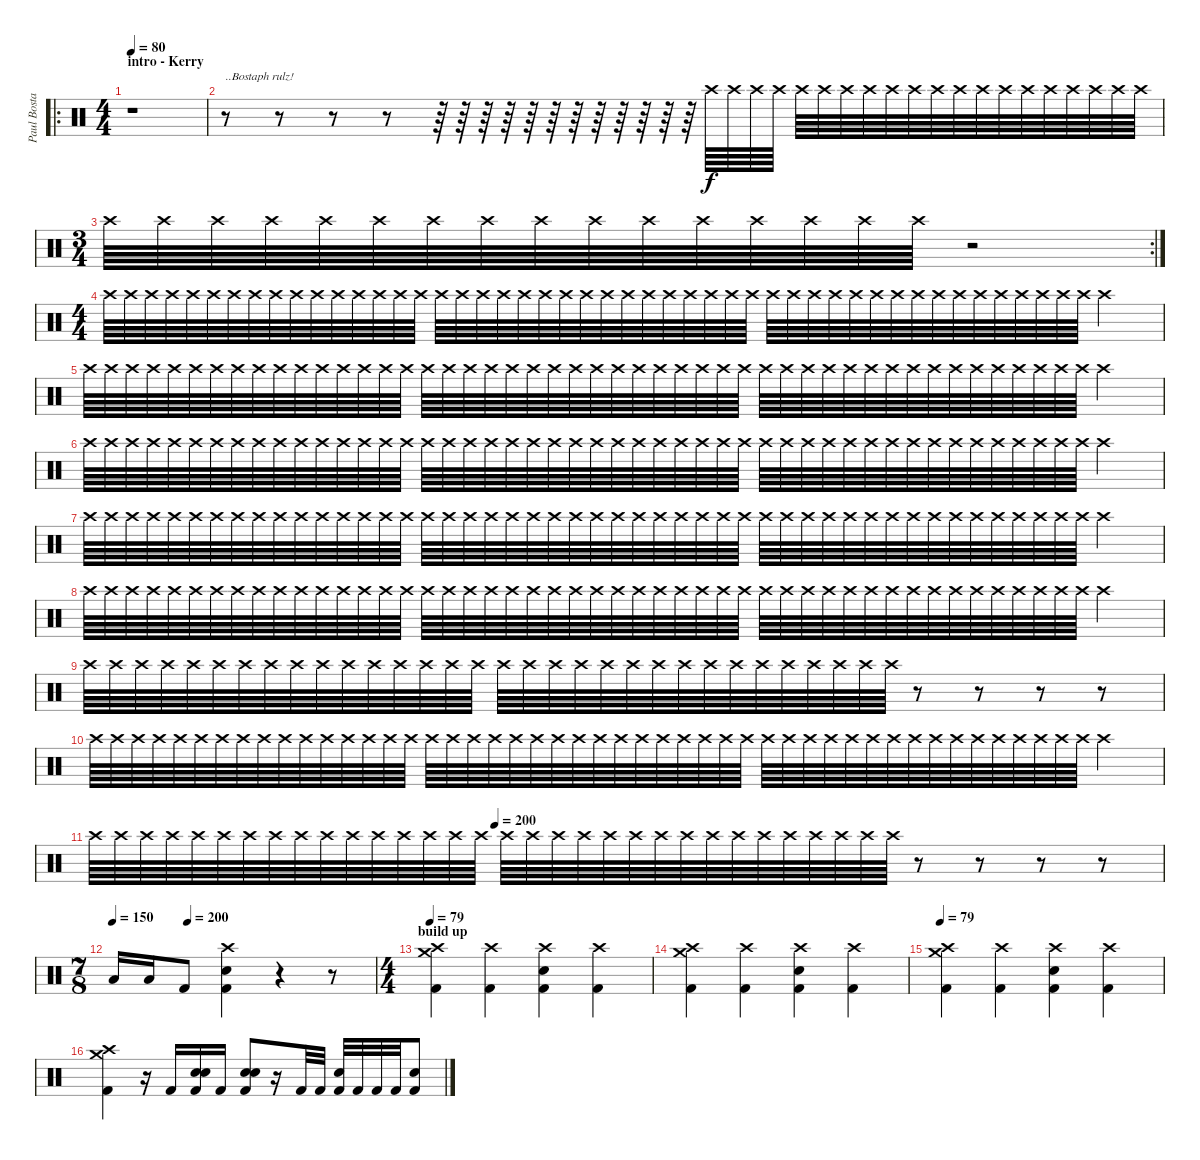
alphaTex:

\track ("Paul Bostaph" "Paul Bosta") {instrument percussion}
\staff {score}
\articulation defaults
\ro
\ts (4 4)
\section ("" "intro - Kerry")
\tempo 80
\clef neutral
\ks c
r.1{dy f} |
r.8{txt "..Bostaph rulz!"} r.8 r.8 r.8 r.64 r.64 r.64 r.64 r.64 r.64 r.64 r.64{volume 5} r.64 r.64 r.64 r.64 "Crash high (hit)".64 "Crash high (hit)".64 "Crash high (hit)".64 "Crash high (hit)".64 "Crash high (hit)".64{volume 6} "Crash high (hit)".64 "Crash high (hit)".64 "Crash high (hit)".64 "Crash high (hit)".64 "Crash high (hit)".64 "Crash high (hit)".64 "Crash high (hit)".64 "Crash high (hit)".64{volume 8} "Crash high (hit)".64 "Crash high (hit)".64 "Crash high (hit)".64 "Crash high (hit)".64 "Crash high (hit)".64 "Crash high (hit)".64 "Crash high (hit)".64 |
\rc 2
\ts (3 4)
"Crash high (hit)".64{volume 8} "Crash high (hit)".64 "Crash high (hit)".64 "Crash high (hit)".64 "Crash high (hit)".64 "Crash high (hit)".64 "Crash high (hit)".64{volume 9} "Crash high (hit)".64 "Crash high (hit)".64 "Crash high (hit)".64 "Crash high (hit)".64 "Crash high (hit)".64 "Crash high (hit)".64{volume 10} "Crash high (hit)".64 "Crash high (hit)".64 "Crash high (hit)".64 r.2 |
\ts (4 4)
"Crash high (hit)".64{volume 5} "Crash high (hit)".64 "Crash high (hit)".64 "Crash high (hit)".64 "Crash high (hit)".64 "Crash high (hit)".64 "Crash high (hit)".64 "Crash high (hit)".64 "Crash high (hit)".64 "Crash high (hit)".64 "Crash high (hit)".64 "Crash high (hit)".64 "Crash high (hit)".64 "Crash high (hit)".64 "Crash high (hit)".64 "Crash high (hit)".64 "Crash high (hit)".64{volume 6} "Crash high (hit)".64 "Crash high (hit)".64 "Crash high (hit)".64 "Crash high (hit)".64 "Crash high (hit)".64 "Crash high (hit)".64 "Crash high (hit)".64 "Crash high (hit)".64 "Crash high (hit)".64 "Crash high (hit)".64 "Crash high (hit)".64 "Crash high (hit)".64 "Crash high (hit)".64 "Crash high (hit)".64 "Crash high (hit)".64 "Crash high (hit)".64{volume 8} "Crash high (hit)".64 "Crash high (hit)".64 "Crash high (hit)".64 "Crash high (hit)".64 "Crash high (hit)".64 "Crash high (hit)".64 "Crash high (hit)".64 "Crash high (hit)".64 "Crash high (hit)".64 "Crash high (hit)".64 "Crash high (hit)".64 "Crash high (hit)".64 "Crash high (hit)".64 "Crash high (hit)".64 "Crash high (hit)".64 "Crash high (hit)".4 |
"Crash high (hit)".64{volume 5} "Crash high (hit)".64 "Crash high (hit)".64 "Crash high (hit)".64 "Crash high (hit)".64 "Crash high (hit)".64 "Crash high (hit)".64 "Crash high (hit)".64 "Crash high (hit)".64 "Crash high (hit)".64 "Crash high (hit)".64 "Crash high (hit)".64 "Crash high (hit)".64 "Crash high (hit)".64 "Crash high (hit)".64 "Crash high (hit)".64 "Crash high (hit)".64{volume 6} "Crash high (hit)".64 "Crash high (hit)".64 "Crash high (hit)".64 "Crash high (hit)".64 "Crash high (hit)".64 "Crash high (hit)".64 "Crash high (hit)".64 "Crash high (hit)".64 "Crash high (hit)".64 "Crash high (hit)".64 "Crash high (hit)".64 "Crash high (hit)".64 "Crash high (hit)".64 "Crash high (hit)".64 "Crash high (hit)".64 "Crash high (hit)".64{volume 8} "Crash high (hit)".64 "Crash high (hit)".64 "Crash high (hit)".64 "Crash high (hit)".64 "Crash high (hit)".64 "Crash high (hit)".64 "Crash high (hit)".64 "Crash high (hit)".64 "Crash high (hit)".64 "Crash high (hit)".64 "Crash high (hit)".64 "Crash high (hit)".64 "Crash high (hit)".64 "Crash high (hit)".64 "Crash high (hit)".64 "Crash high (hit)".4 |
"Crash high (hit)".64{volume 5} "Crash high (hit)".64 "Crash high (hit)".64 "Crash high (hit)".64 "Crash high (hit)".64 "Crash high (hit)".64 "Crash high (hit)".64 "Crash high (hit)".64 "Crash high (hit)".64 "Crash high (hit)".64 "Crash high (hit)".64 "Crash high (hit)".64 "Crash high (hit)".64 "Crash high (hit)".64 "Crash high (hit)".64 "Crash high (hit)".64 "Crash high (hit)".64{volume 6} "Crash high (hit)".64 "Crash high (hit)".64 "Crash high (hit)".64 "Crash high (hit)".64 "Crash high (hit)".64 "Crash high (hit)".64 "Crash high (hit)".64 "Crash high (hit)".64 "Crash high (hit)".64 "Crash high (hit)".64 "Crash high (hit)".64 "Crash high (hit)".64 "Crash high (hit)".64 "Crash high (hit)".64 "Crash high (hit)".64 "Crash high (hit)".64{volume 8} "Crash high (hit)".64 "Crash high (hit)".64 "Crash high (hit)".64 "Crash high (hit)".64 "Crash high (hit)".64 "Crash high (hit)".64 "Crash high (hit)".64 "Crash high (hit)".64 "Crash high (hit)".64 "Crash high (hit)".64 "Crash high (hit)".64 "Crash high (hit)".64 "Crash high (hit)".64 "Crash high (hit)".64 "Crash high (hit)".64 "Crash high (hit)".4 |
"Crash high (hit)".64{volume 5} "Crash high (hit)".64 "Crash high (hit)".64 "Crash high (hit)".64 "Crash high (hit)".64 "Crash high (hit)".64 "Crash high (hit)".64 "Crash high (hit)".64 "Crash high (hit)".64 "Crash high (hit)".64 "Crash high (hit)".64 "Crash high (hit)".64 "Crash high (hit)".64 "Crash high (hit)".64 "Crash high (hit)".64 "Crash high (hit)".64 "Crash high (hit)".64{volume 6} "Crash high (hit)".64 "Crash high (hit)".64 "Crash high (hit)".64 "Crash high (hit)".64 "Crash high (hit)".64 "Crash high (hit)".64 "Crash high (hit)".64 "Crash high (hit)".64 "Crash high (hit)".64 "Crash high (hit)".64 "Crash high (hit)".64 "Crash high (hit)".64 "Crash high (hit)".64 "Crash high (hit)".64 "Crash high (hit)".64 "Crash high (hit)".64{volume 8} "Crash high (hit)".64 "Crash high (hit)".64 "Crash high (hit)".64 "Crash high (hit)".64 "Crash high (hit)".64 "Crash high (hit)".64 "Crash high (hit)".64 "Crash high (hit)".64 "Crash high (hit)".64 "Crash high (hit)".64 "Crash high (hit)".64 "Crash high (hit)".64 "Crash high (hit)".64 "Crash high (hit)".64 "Crash high (hit)".64 "Crash high (hit)".4 |
"Crash high (hit)".64{volume 5} "Crash high (hit)".64 "Crash high (hit)".64 "Crash high (hit)".64 "Crash high (hit)".64 "Crash high (hit)".64 "Crash high (hit)".64 "Crash high (hit)".64 "Crash high (hit)".64 "Crash high (hit)".64 "Crash high (hit)".64 "Crash high (hit)".64 "Crash high (hit)".64 "Crash high (hit)".64 "Crash high (hit)".64 "Crash high (hit)".64 "Crash high (hit)".64{volume 6} "Crash high (hit)".64 "Crash high (hit)".64 "Crash high (hit)".64 "Crash high (hit)".64 "Crash high (hit)".64 "Crash high (hit)".64 "Crash high (hit)".64 "Crash high (hit)".64 "Crash high (hit)".64 "Crash high (hit)".64 "Crash high (hit)".64 "Crash high (hit)".64 "Crash high (hit)".64 "Crash high (hit)".64 "Crash high (hit)".64 "Crash high (hit)".64{volume 8} "Crash high (hit)".64 "Crash high (hit)".64 "Crash high (hit)".64 "Crash high (hit)".64 "Crash high (hit)".64 "Crash high (hit)".64 "Crash high (hit)".64 "Crash high (hit)".64 "Crash high (hit)".64 "Crash high (hit)".64 "Crash high (hit)".64 "Crash high (hit)".64 "Crash high (hit)".64 "Crash high (hit)".64 "Crash high (hit)".64 "Crash high (hit)".4 |
"Crash high (hit)".64{volume 7} "Crash high (hit)".64 "Crash high (hit)".64 "Crash high (hit)".64 "Crash high (hit)".64 "Crash high (hit)".64 "Crash high (hit)".64 "Crash high (hit)".64 "Crash high (hit)".64 "Crash high (hit)".64 "Crash high (hit)".64 "Crash high (hit)".64 "Crash high (hit)".64 "Crash high (hit)".64 "Crash high (hit)".64 "Crash high (hit)".64 "Crash high (hit)".64{volume 9} "Crash high (hit)".64 "Crash high (hit)".64 "Crash high (hit)".64 "Crash high (hit)".64 "Crash high (hit)".64 "Crash high (hit)".64 "Crash high (hit)".64 "Crash high (hit)".64 "Crash high (hit)".64 "Crash high (hit)".64 "Crash high (hit)".64 "Crash high (hit)".64 "Crash high (hit)".64 "Crash high (hit)".64 "Crash high (hit)".64 r.8 r.8 r.8 r.8 |
"Crash high (hit)".64{volume 7} "Crash high (hit)".64 "Crash high (hit)".64 "Crash high (hit)".64 "Crash high (hit)".64 "Crash high (hit)".64 "Crash high (hit)".64 "Crash high (hit)".64 "Crash high (hit)".64 "Crash high (hit)".64 "Crash high (hit)".64 "Crash high (hit)".64 "Crash high (hit)".64 "Crash high (hit)".64 "Crash high (hit)".64 "Crash high (hit)".64 "Crash high (hit)".64{volume 9} "Crash high (hit)".64 "Crash high (hit)".64 "Crash high (hit)".64 "Crash high (hit)".64 "Crash high (hit)".64 "Crash high (hit)".64 "Crash high (hit)".64 "Crash high (hit)".64 "Crash high (hit)".64 "Crash high (hit)".64 "Crash high (hit)".64 "Crash high (hit)".64 "Crash high (hit)".64 "Crash high (hit)".64 "Crash high (hit)".64 "Crash high (hit)".64{volume 11} "Crash high (hit)".64 "Crash high (hit)".64 "Crash high (hit)".64 "Crash high (hit)".64 "Crash high (hit)".64 "Crash high (hit)".64 "Crash high (hit)".64 "Crash high (hit)".64 "Crash high (hit)".64 "Crash high (hit)".64 "Crash high (hit)".64 "Crash high (hit)".64 "Crash high (hit)".64 "Crash high (hit)".64 "Crash high (hit)".64 "Crash high (hit)".4 |
\tempo (200 0.375)
"Crash high (hit)".64{volume 7} "Crash high (hit)".64 "Crash high (hit)".64 "Crash high (hit)".64 "Crash high (hit)".64 "Crash high (hit)".64 "Crash high (hit)".64 "Crash high (hit)".64 "Crash high (hit)".64 "Crash high (hit)".64 "Crash high (hit)".64 "Crash high (hit)".64 "Crash high (hit)".64 "Crash high (hit)".64 "Crash high (hit)".64 "Crash high (hit)".64 "Crash high (hit)".64{volume 9} "Crash high (hit)".64 "Crash high (hit)".64 "Crash high (hit)".64 "Crash high (hit)".64 "Crash high (hit)".64 "Crash high (hit)".64 "Crash high (hit)".64 "Crash high (hit)".64 "Crash high (hit)".64 "Crash high (hit)".64 "Crash high (hit)".64 "Crash high (hit)".64 "Crash high (hit)".64 "Crash high (hit)".64 "Crash high (hit)".64 r.8 r.8 r.8 r.8 |
\ts (7 8)
\tempo 180
\tempo 150
\tempo (200 0.2857142857142857)
"Low Tom (hit)".16{volume 16} "Low Tom (hit)".16 "Kick (hit) 2".8 ("Kick (hit) 2" "Snare (hit) 2" "Crash high (hit)").4 r.4 r.8 |
\ts (4 4)
\section ("" "build up")
\tempo 79
("Crash high (hit)" "Crash medium (hit)" "Kick (hit) 2").4 ("Crash high (hit)" "Kick (hit) 2").4 ("Crash high (hit)" "Snare (hit) 2" "Kick (hit) 2").4 ("Crash high (hit)" "Kick (hit) 2").4 |
("Crash high (hit)" "Crash medium (hit)" "Kick (hit) 2").4 ("Crash high (hit)" "Kick (hit) 2").4 ("Crash high (hit)" "Snare (hit) 2" "Kick (hit) 2").4 ("Crash high (hit)" "Kick (hit) 2").4 |
\tempo 79
("Crash high (hit)" "Crash medium (hit)" "Kick (hit) 2").4 ("Crash high (hit)" "Kick (hit) 2").4 ("Crash high (hit)" "Snare (hit) 2" "Kick (hit) 2").4 ("Crash high (hit)" "Kick (hit) 2").4 |
("Crash high (hit)" "Crash medium (hit)" "Kick (hit) 2").4 r.16 "Kick (hit) 2".16 ("Snare (hit) 2" "Snare (hit) 2" "Kick (hit) 2").16 "Kick (hit) 2".16 ("Snare (hit) 2" "Snare (hit) 2" "Kick (hit) 2").8 r.16 "Kick (hit) 2".32 "Kick (hit) 2".32 ("Snare (hit) 2" "Kick (hit) 2").32 "Kick (hit) 2".32 "Kick (hit) 2".32 "Kick (hit) 2".32 ("Snare (hit) 2" "Kick (hit) 2").8
